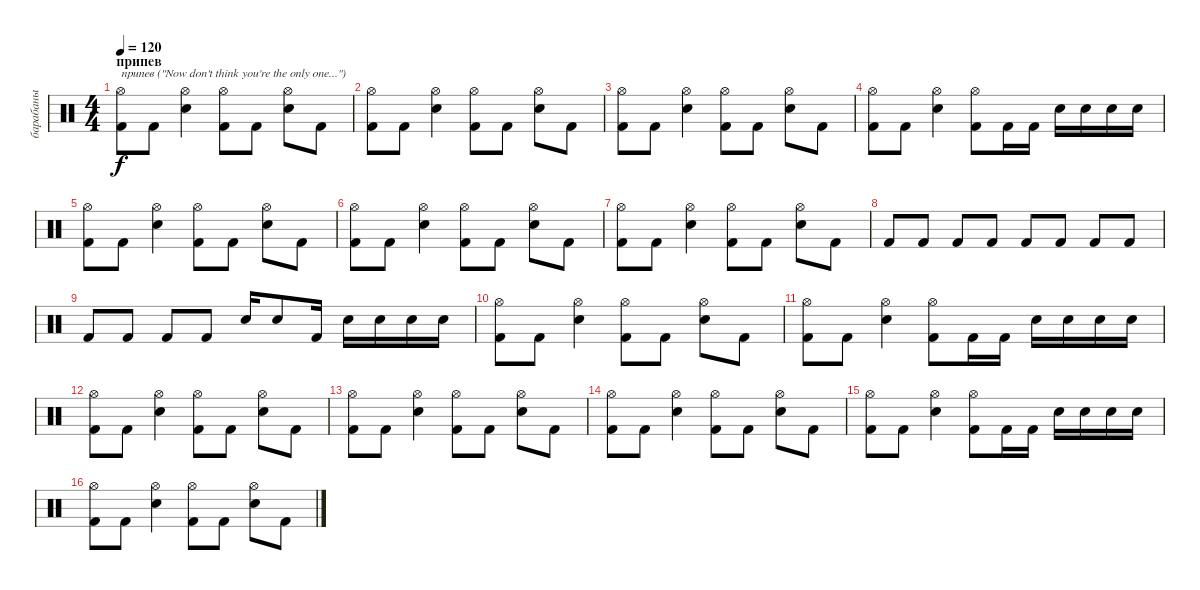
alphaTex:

\track ("барабаны" "барабаны") {instrument percussion}
\staff {score}
\articulation defaults
\ts (4 4)
\section ("" "припев")
\tempo 120
\clef neutral
\ks c
("Hi-Hat (open)" "Kick (hit) 2").8{txt "припев (\"Now don't think you're the only one...\")" dy f} "Kick (hit) 2".8 ("Hi-Hat (open)" "Snare (hit) 2").4 ("Hi-Hat (open)" "Kick (hit) 2").8 "Kick (hit) 2".8 ("Hi-Hat (open)" "Snare (hit) 2").8 "Kick (hit) 2".8 |
("Hi-Hat (open)" "Kick (hit) 2").8 "Kick (hit) 2".8 ("Hi-Hat (open)" "Snare (hit) 2").4 ("Hi-Hat (open)" "Kick (hit) 2").8 "Kick (hit) 2".8 ("Hi-Hat (open)" "Snare (hit) 2").8 "Kick (hit) 2".8 |
("Hi-Hat (open)" "Kick (hit) 2").8 "Kick (hit) 2".8 ("Hi-Hat (open)" "Snare (hit) 2").4 ("Hi-Hat (open)" "Kick (hit) 2").8 "Kick (hit) 2".8 ("Hi-Hat (open)" "Snare (hit) 2").8 "Kick (hit) 2".8 |
("Hi-Hat (open)" "Kick (hit) 2").8 "Kick (hit) 2".8 ("Hi-Hat (open)" "Snare (hit) 2").4 ("Hi-Hat (open)" "Kick (hit) 2").8 "Kick (hit) 2".16 "Kick (hit) 2".16 "Snare (hit) 2".16 "Snare (hit) 2".16 "Snare (hit) 2".16 "Snare (hit) 2".16 |
("Hi-Hat (open)" "Kick (hit) 2").8 "Kick (hit) 2".8 ("Hi-Hat (open)" "Snare (hit) 2").4 ("Hi-Hat (open)" "Kick (hit) 2").8 "Kick (hit) 2".8 ("Hi-Hat (open)" "Snare (hit) 2").8 "Kick (hit) 2".8 |
("Hi-Hat (open)" "Kick (hit) 2").8 "Kick (hit) 2".8 ("Hi-Hat (open)" "Snare (hit) 2").4 ("Hi-Hat (open)" "Kick (hit) 2").8 "Kick (hit) 2".8 ("Hi-Hat (open)" "Snare (hit) 2").8 "Kick (hit) 2".8 |
("Hi-Hat (open)" "Kick (hit) 2").8 "Kick (hit) 2".8 ("Hi-Hat (open)" "Snare (hit) 2").4 ("Hi-Hat (open)" "Kick (hit) 2").8 "Kick (hit) 2".8 ("Hi-Hat (open)" "Snare (hit) 2").8 "Kick (hit) 2".8 |
"Kick (hit) 2".8 "Kick (hit) 2".8 "Kick (hit) 2".8 "Kick (hit) 2".8 "Kick (hit) 2".8 "Kick (hit) 2".8 "Kick (hit) 2".8 "Kick (hit) 2".8 |
"Kick (hit) 2".8 "Kick (hit) 2".8 "Kick (hit) 2".8 "Kick (hit) 2".8 "Snare (hit) 2".16 "Snare (hit) 2".8 "Kick (hit) 2".16 "Snare (hit) 2".16 "Snare (hit) 2".16 "Snare (hit) 2".16 "Snare (hit) 2".16 |
("Hi-Hat (open)" "Kick (hit) 2").8 "Kick (hit) 2".8 ("Hi-Hat (open)" "Snare (hit) 2").4 ("Hi-Hat (open)" "Kick (hit) 2").8 "Kick (hit) 2".8 ("Hi-Hat (open)" "Snare (hit) 2").8 "Kick (hit) 2".8 |
("Hi-Hat (open)" "Kick (hit) 2").8 "Kick (hit) 2".8 ("Hi-Hat (open)" "Snare (hit) 2").4 ("Hi-Hat (open)" "Kick (hit) 2").8 "Kick (hit) 2".16 "Kick (hit) 2".16 "Snare (hit) 2".16 "Snare (hit) 2".16 "Snare (hit) 2".16 "Snare (hit) 2".16 |
("Hi-Hat (open)" "Kick (hit) 2").8 "Kick (hit) 2".8 ("Hi-Hat (open)" "Snare (hit) 2").4 ("Hi-Hat (open)" "Kick (hit) 2").8 "Kick (hit) 2".8 ("Hi-Hat (open)" "Snare (hit) 2").8 "Kick (hit) 2".8 |
("Hi-Hat (open)" "Kick (hit) 2").8 "Kick (hit) 2".8 ("Hi-Hat (open)" "Snare (hit) 2").4 ("Hi-Hat (open)" "Kick (hit) 2").8 "Kick (hit) 2".8 ("Hi-Hat (open)" "Snare (hit) 2").8 "Kick (hit) 2".8 |
("Hi-Hat (open)" "Kick (hit) 2").8 "Kick (hit) 2".8 ("Hi-Hat (open)" "Snare (hit) 2").4 ("Hi-Hat (open)" "Kick (hit) 2").8 "Kick (hit) 2".8 ("Hi-Hat (open)" "Snare (hit) 2").8 "Kick (hit) 2".8 |
("Hi-Hat (open)" "Kick (hit) 2").8 "Kick (hit) 2".8 ("Hi-Hat (open)" "Snare (hit) 2").4 ("Hi-Hat (open)" "Kick (hit) 2").8 "Kick (hit) 2".16 "Kick (hit) 2".16 "Snare (hit) 2".16 "Snare (hit) 2".16 "Snare (hit) 2".16 "Snare (hit) 2".16 |
("Hi-Hat (open)" "Kick (hit) 2").8 "Kick (hit) 2".8 ("Hi-Hat (open)" "Snare (hit) 2").4 ("Hi-Hat (open)" "Kick (hit) 2").8 "Kick (hit) 2".8 ("Hi-Hat (open)" "Snare (hit) 2").8 "Kick (hit) 2".8
